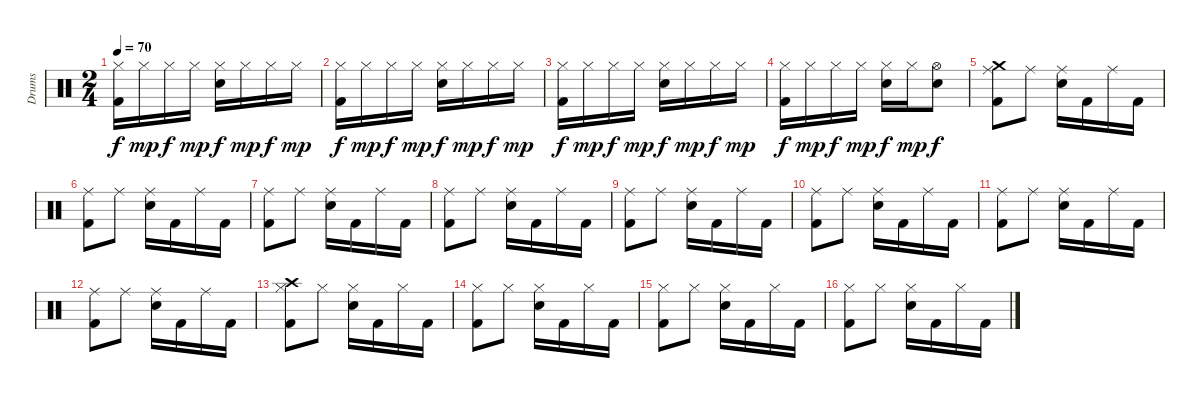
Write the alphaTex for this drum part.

\track ("Drums" "Drums") {instrument percussion}
\staff {score}
\articulation defaults
\ts (2 4)
\tempo 70
\clef neutral
\ks c
("Hi-Hat (closed)" "Kick (hit) 2").16{dy f} "Hi-Hat (closed)".16{dy mp} "Hi-Hat (closed)".16{dy f} "Hi-Hat (closed)".16{dy mp} ("Hi-Hat (closed)" "Electric Snare (hit)").16{dy f} "Hi-Hat (closed)".16{dy mp} "Hi-Hat (closed)".16{dy f} "Hi-Hat (closed)".16{dy mp} |
("Hi-Hat (closed)" "Kick (hit) 2").16{dy f} "Hi-Hat (closed)".16{dy mp} "Hi-Hat (closed)".16{dy f} "Hi-Hat (closed)".16{dy mp} ("Hi-Hat (closed)" "Electric Snare (hit)").16{dy f} "Hi-Hat (closed)".16{dy mp} "Hi-Hat (closed)".16{dy f} "Hi-Hat (closed)".16{dy mp} |
("Hi-Hat (closed)" "Kick (hit) 2").16{dy f} "Hi-Hat (closed)".16{dy mp} "Hi-Hat (closed)".16{dy f} "Hi-Hat (closed)".16{dy mp} ("Hi-Hat (closed)" "Electric Snare (hit)").16{dy f} "Hi-Hat (closed)".16{dy mp} "Hi-Hat (closed)".16{dy f} "Hi-Hat (closed)".16{dy mp} |
("Hi-Hat (closed)" "Kick (hit) 2").16{dy f} "Hi-Hat (closed)".16{dy mp} "Hi-Hat (closed)".16{dy f} "Hi-Hat (closed)".16{dy mp} ("Hi-Hat (closed)" "Electric Snare (hit)").16{dy f} "Hi-Hat (closed)".16{dy mp} ("Hi-Hat (open)" "Electric Snare (hit)").8{dy f} |
("Crash medium (hit)" "Ride (middle)" "Kick (hit) 2").8 "Ride (middle)".8 ("Ride (middle)" "Electric Snare (hit)").16 "Kick (hit) 2".16 "Ride (middle)".16 "Kick (hit) 2".16 |
("Ride (middle)" "Kick (hit) 2").8 "Ride (middle)".8 ("Ride (middle)" "Electric Snare (hit)").16 "Kick (hit) 2".16 "Ride (middle)".16 "Kick (hit) 2".16 |
("Ride (middle)" "Kick (hit) 2").8 "Ride (middle)".8 ("Ride (middle)" "Electric Snare (hit)").16 "Kick (hit) 2".16 "Ride (middle)".16 "Kick (hit) 2".16 |
("Ride (middle)" "Kick (hit) 2").8 "Ride (middle)".8 ("Ride (middle)" "Electric Snare (hit)").16 "Kick (hit) 2".16 "Ride (middle)".16 "Kick (hit) 2".16 |
("Ride (middle)" "Kick (hit) 2").8 "Ride (middle)".8 ("Ride (middle)" "Electric Snare (hit)").16 "Kick (hit) 2".16 "Ride (middle)".16 "Kick (hit) 2".16 |
("Ride (middle)" "Kick (hit) 2").8 "Ride (middle)".8 ("Ride (middle)" "Electric Snare (hit)").16 "Kick (hit) 2".16 "Ride (middle)".16 "Kick (hit) 2".16 |
("Ride (middle)" "Kick (hit) 2").8 "Ride (middle)".8 ("Ride (middle)" "Electric Snare (hit)").16 "Kick (hit) 2".16 "Ride (middle)".16 "Kick (hit) 2".16 |
("Ride (middle)" "Kick (hit) 2").8 "Ride (middle)".8 ("Ride (middle)" "Electric Snare (hit)").16 "Kick (hit) 2".16 "Ride (middle)".16 "Kick (hit) 2".16 |
("Crash high (hit)" "Hi-Hat (closed)" "Kick (hit) 2").8 "Hi-Hat (closed)".8 ("Hi-Hat (closed)" "Electric Snare (hit)").16 "Kick (hit) 2".16 "Hi-Hat (closed)".16 "Kick (hit) 2".16 |
("Hi-Hat (closed)" "Kick (hit) 2").8 "Hi-Hat (closed)".8 ("Hi-Hat (closed)" "Electric Snare (hit)").16 "Kick (hit) 2".16 "Hi-Hat (closed)".16 "Kick (hit) 2".16 |
("Hi-Hat (closed)" "Kick (hit) 2").8 "Hi-Hat (closed)".8 ("Hi-Hat (closed)" "Electric Snare (hit)").16 "Kick (hit) 2".16 "Hi-Hat (closed)".16 "Kick (hit) 2".16 |
("Hi-Hat (closed)" "Kick (hit) 2").8 "Hi-Hat (closed)".8 ("Hi-Hat (closed)" "Electric Snare (hit)").16 "Kick (hit) 2".16 "Hi-Hat (closed)".16 "Kick (hit) 2".16
